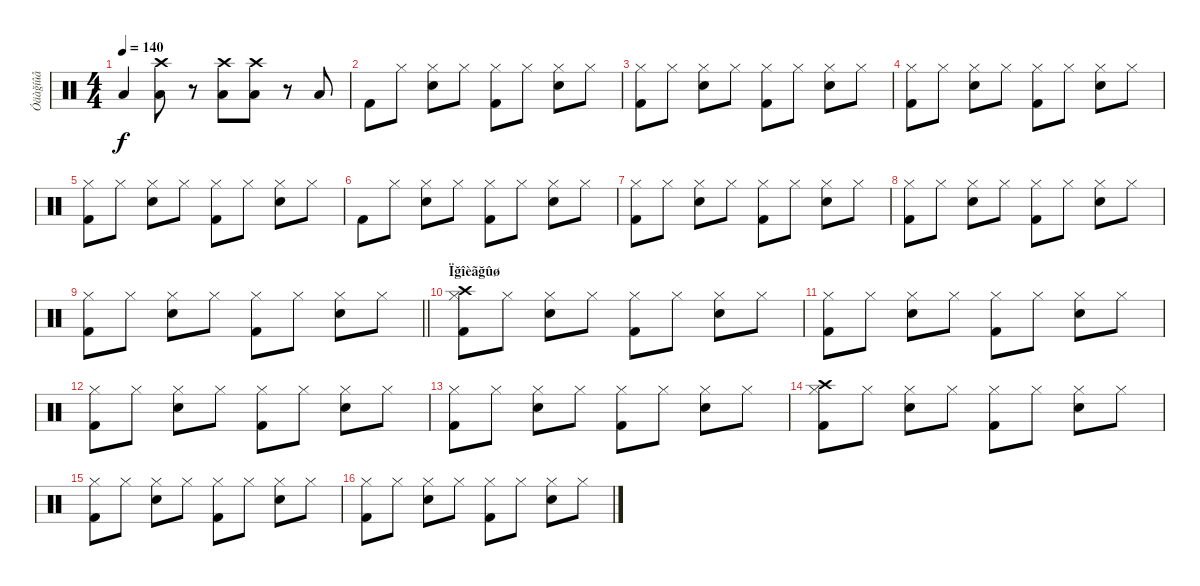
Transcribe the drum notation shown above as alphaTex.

\track ("Óäàğíûå" "Óäàğíûå") {instrument percussion}
\staff {score}
\articulation defaults
\ts (4 4)
\tempo 140
\clef neutral
\ks c "Low Tom (hit)".4{dy f}
("Crash high (hit)" "Low Tom (hit)").8 r.8 ("Crash high (hit)" "Low Tom (hit)").8 ("Crash high (hit)" "Low Tom (hit)").8 r.8 "Low Tom (hit)".8 |
"Kick (hit) 2".8 "Hi-Hat (closed)".8 ("Hi-Hat (closed)" "Snare (hit) 2").8 "Hi-Hat (closed)".8 ("Hi-Hat (closed)" "Kick (hit) 2").8 "Hi-Hat (closed)".8 ("Hi-Hat (closed)" "Snare (hit) 2").8 "Hi-Hat (closed)".8 |
("Hi-Hat (closed)" "Kick (hit) 2").8 "Hi-Hat (closed)".8 ("Hi-Hat (closed)" "Snare (hit) 2").8 "Hi-Hat (closed)".8 ("Hi-Hat (closed)" "Kick (hit) 2").8 "Hi-Hat (closed)".8 ("Hi-Hat (closed)" "Snare (hit) 2").8 "Hi-Hat (closed)".8 |
("Hi-Hat (closed)" "Kick (hit) 2").8 "Hi-Hat (closed)".8 ("Hi-Hat (closed)" "Snare (hit) 2").8 "Hi-Hat (closed)".8 ("Hi-Hat (closed)" "Kick (hit) 2").8 "Hi-Hat (closed)".8 ("Hi-Hat (closed)" "Snare (hit) 2").8 "Hi-Hat (closed)".8 |
("Hi-Hat (closed)" "Kick (hit) 2").8 "Hi-Hat (closed)".8 ("Hi-Hat (closed)" "Snare (hit) 2").8 "Hi-Hat (closed)".8 ("Hi-Hat (closed)" "Kick (hit) 2").8 "Hi-Hat (closed)".8 ("Hi-Hat (closed)" "Snare (hit) 2").8 "Hi-Hat (closed)".8 |
"Kick (hit) 2".8 "Hi-Hat (closed)".8 ("Hi-Hat (closed)" "Snare (hit) 2").8 "Hi-Hat (closed)".8 ("Hi-Hat (closed)" "Kick (hit) 2").8 "Hi-Hat (closed)".8 ("Hi-Hat (closed)" "Snare (hit) 2").8 "Hi-Hat (closed)".8 |
("Hi-Hat (closed)" "Kick (hit) 2").8 "Hi-Hat (closed)".8 ("Hi-Hat (closed)" "Snare (hit) 2").8 "Hi-Hat (closed)".8 ("Hi-Hat (closed)" "Kick (hit) 2").8 "Hi-Hat (closed)".8 ("Hi-Hat (closed)" "Snare (hit) 2").8 "Hi-Hat (closed)".8 |
("Hi-Hat (closed)" "Kick (hit) 2").8 "Hi-Hat (closed)".8 ("Hi-Hat (closed)" "Snare (hit) 2").8 "Hi-Hat (closed)".8 ("Hi-Hat (closed)" "Kick (hit) 2").8 "Hi-Hat (closed)".8 ("Hi-Hat (closed)" "Snare (hit) 2").8 "Hi-Hat (closed)".8 |
\barLineRight lightlight
("Hi-Hat (closed)" "Kick (hit) 2").8 "Hi-Hat (closed)".8 ("Hi-Hat (closed)" "Snare (hit) 2").8 "Hi-Hat (closed)".8 ("Hi-Hat (closed)" "Kick (hit) 2").8 "Hi-Hat (closed)".8 ("Hi-Hat (closed)" "Snare (hit) 2").8 "Hi-Hat (closed)".8 |
\section ("" "Ïğîèãğûø")
("Hi-Hat (closed)" "Kick (hit) 2" "Crash high (hit)").8 "Hi-Hat (closed)".8 ("Hi-Hat (closed)" "Snare (hit) 2").8 "Hi-Hat (closed)".8 ("Hi-Hat (closed)" "Kick (hit) 2").8 "Hi-Hat (closed)".8 ("Hi-Hat (closed)" "Snare (hit) 2").8 "Hi-Hat (closed)".8 |
("Hi-Hat (closed)" "Kick (hit) 2").8 "Hi-Hat (closed)".8 ("Hi-Hat (closed)" "Snare (hit) 2").8 "Hi-Hat (closed)".8 ("Hi-Hat (closed)" "Kick (hit) 2").8 "Hi-Hat (closed)".8 ("Hi-Hat (closed)" "Snare (hit) 2").8 "Hi-Hat (closed)".8 |
("Hi-Hat (closed)" "Kick (hit) 2").8 "Hi-Hat (closed)".8 ("Hi-Hat (closed)" "Snare (hit) 2").8 "Hi-Hat (closed)".8 ("Hi-Hat (closed)" "Kick (hit) 2").8 "Hi-Hat (closed)".8 ("Hi-Hat (closed)" "Snare (hit) 2").8 "Hi-Hat (closed)".8 |
("Hi-Hat (closed)" "Kick (hit) 2").8 "Hi-Hat (closed)".8 ("Hi-Hat (closed)" "Snare (hit) 2").8 "Hi-Hat (closed)".8 ("Hi-Hat (closed)" "Kick (hit) 2").8 "Hi-Hat (closed)".8 ("Hi-Hat (closed)" "Snare (hit) 2").8 "Hi-Hat (closed)".8 |
("Hi-Hat (closed)" "Kick (hit) 2" "Crash high (hit)").8 "Hi-Hat (closed)".8 ("Hi-Hat (closed)" "Snare (hit) 2").8 "Hi-Hat (closed)".8 ("Hi-Hat (closed)" "Kick (hit) 2").8 "Hi-Hat (closed)".8 ("Hi-Hat (closed)" "Snare (hit) 2").8 "Hi-Hat (closed)".8 |
("Hi-Hat (closed)" "Kick (hit) 2").8 "Hi-Hat (closed)".8 ("Hi-Hat (closed)" "Snare (hit) 2").8 "Hi-Hat (closed)".8 ("Hi-Hat (closed)" "Kick (hit) 2").8 "Hi-Hat (closed)".8 ("Hi-Hat (closed)" "Snare (hit) 2").8 "Hi-Hat (closed)".8 |
("Hi-Hat (closed)" "Kick (hit) 2").8 "Hi-Hat (closed)".8 ("Hi-Hat (closed)" "Snare (hit) 2").8 "Hi-Hat (closed)".8 ("Hi-Hat (closed)" "Kick (hit) 2").8 "Hi-Hat (closed)".8 ("Hi-Hat (closed)" "Snare (hit) 2").8 "Hi-Hat (closed)".8
